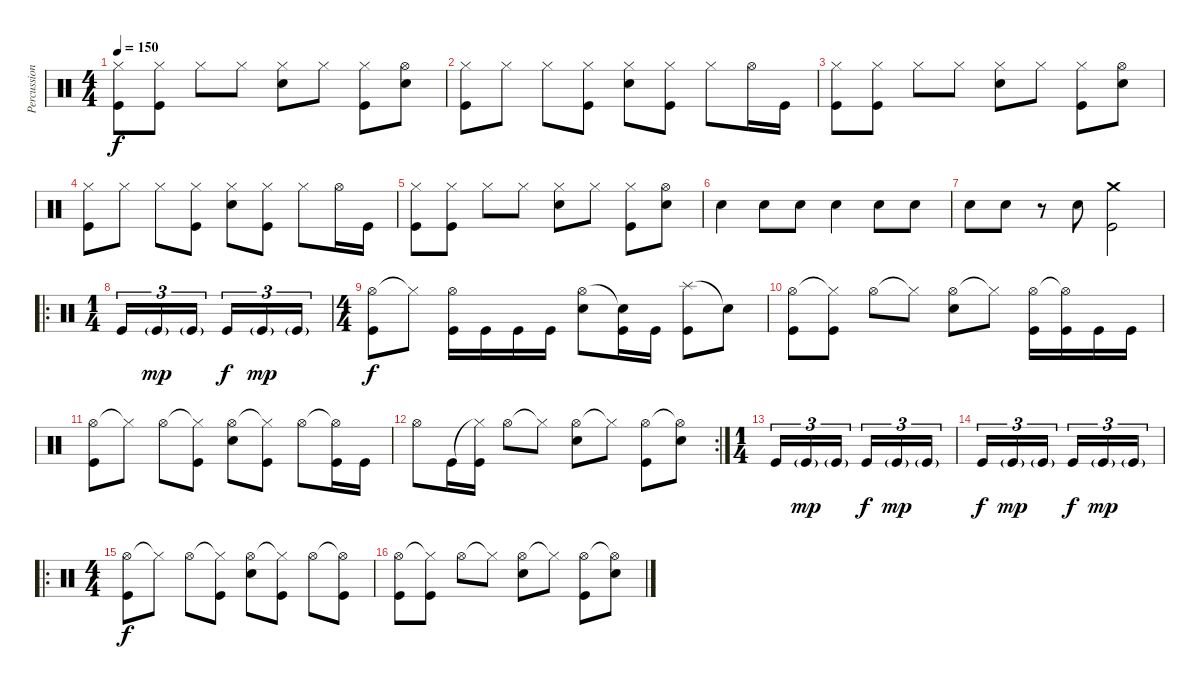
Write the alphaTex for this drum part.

\track ("Percussion" "Percussion") {instrument percussion}
\staff {score}
\articulation defaults
\ts (4 4)
\tempo 150
\clef neutral
\ks c
("Hi-Hat (closed)" "Kick (hit)").8{dy f} ("Hi-Hat (closed)" "Kick (hit)").8 "Hi-Hat (closed)".8 "Hi-Hat (closed)".8 ("Hi-Hat (closed)" "Snare (hit) 2").8 "Hi-Hat (closed)".8 ("Hi-Hat (closed)" "Kick (hit)").8 ("Hi-Hat (open)" "Snare (hit) 2").8 |
("Hi-Hat (closed)" "Kick (hit)").8 "Hi-Hat (closed)".8 "Hi-Hat (closed)".8 ("Hi-Hat (closed)" "Kick (hit)").8 ("Hi-Hat (closed)" "Snare (hit) 2").8 ("Hi-Hat (closed)" "Kick (hit)").8 "Hi-Hat (closed)".8 "Hi-Hat (open)".16 "Kick (hit)".16 |
("Hi-Hat (closed)" "Kick (hit)").8 ("Hi-Hat (closed)" "Kick (hit)").8 "Hi-Hat (closed)".8 "Hi-Hat (closed)".8 ("Hi-Hat (closed)" "Snare (hit) 2").8 "Hi-Hat (closed)".8 ("Hi-Hat (closed)" "Kick (hit)").8 ("Hi-Hat (open)" "Snare (hit) 2").8 |
("Hi-Hat (closed)" "Kick (hit)").8 "Hi-Hat (closed)".8 "Hi-Hat (closed)".8 ("Hi-Hat (closed)" "Kick (hit)").8 ("Hi-Hat (closed)" "Snare (hit) 2").8 ("Hi-Hat (closed)" "Kick (hit)").8 "Hi-Hat (closed)".8 "Hi-Hat (open)".16 "Kick (hit)".16 |
("Hi-Hat (closed)" "Kick (hit)").8 ("Hi-Hat (closed)" "Kick (hit)").8 "Hi-Hat (closed)".8 "Hi-Hat (closed)".8 ("Hi-Hat (closed)" "Snare (hit) 2").8 "Hi-Hat (closed)".8 ("Hi-Hat (closed)" "Kick (hit)").8 ("Hi-Hat (open)" "Snare (hit) 2").8 |
"Snare (hit) 2".4 "Snare (hit) 2".8 "Snare (hit) 2".8 "Snare (hit) 2".4 "Snare (hit) 2".8 "Snare (hit) 2".8 |
"Snare (hit) 2".8 "Snare (hit) 2".8 r.8 "Snare (hit) 2".8 ("Crash medium (hit)" "Kick (hit)").2 |
\ro
\ts (1 4)
"Kick (hit)".16{tu (3 2)} "Kick (hit)"{g}.16{tu (3 2) dy mp} "Kick (hit)"{g}.16{tu (3 2)} "Kick (hit)".16{tu (3 2) dy f} "Kick (hit)"{g}.16{tu (3 2) dy mp} "Kick (hit)"{g}.16{tu (3 2)} |
\ts (4 4)
("Hi-Hat (open)" "Kick (hit)").8{dy f} "Hi-Hat (closed)"{t}.8 ("Hi-Hat (open)" "Kick (hit)").16 "Kick (hit)".16 "Kick (hit)".16 "Kick (hit)".16 ("Hi-Hat (open)" "Snare (hit) 2").8 ("Snare (hit)"{t} "Kick (hit)").16 "Kick (hit)".16 ("Splash (hit)" "Kick (hit)").8 "Snare (hit)"{t}.8 |
("Hi-Hat (open)" "Kick (hit)").8 ("Hi-Hat (closed)"{t} "Kick (hit)").8 "Hi-Hat (open)".8 "Hi-Hat (closed)"{t}.8 ("Hi-Hat (open)" "Snare (hit) 2").8 "Hi-Hat (closed)"{t}.8 ("Hi-Hat (open)" "Kick (hit)").16 ("Hi-Hat (open)"{t} "Kick (hit)").16 "Kick (hit)".16 "Kick (hit)".16 |
("Hi-Hat (open)" "Kick (hit)").8 "Hi-Hat (closed)"{t}.8 "Hi-Hat (open)".8 ("Hi-Hat (closed)"{t} "Kick (hit)").8 ("Hi-Hat (open)" "Snare (hit) 2").8 ("Hi-Hat (closed)"{t} "Kick (hit)").8 "Hi-Hat (open)".8 ("Hi-Hat (open)"{t} "Kick (hit)").16 "Kick (hit)".16 |
\rc 2 "Hi-Hat (open)".8 "Kick (hit)".16
("Hi-Hat (closed)"{t} "Kick (hit)").16 "Hi-Hat (open)".8 "Hi-Hat (closed)"{t}.8 ("Hi-Hat (open)" "Snare (hit) 2").8 "Hi-Hat (closed)"{t}.8 ("Hi-Hat (open)" "Kick (hit)").8 ("Hi-Hat (open)"{t} "Snare (hit) 2").8 |
\ts (1 4)
"Kick (hit)".16{tu (3 2)} "Kick (hit)"{g}.16{tu (3 2) dy mp} "Kick (hit)"{g}.16{tu (3 2)} "Kick (hit)".16{tu (3 2) dy f} "Kick (hit)"{g}.16{tu (3 2) dy mp} "Kick (hit)"{g}.16{tu (3 2)} |
"Kick (hit)".16{tu (3 2) dy f} "Kick (hit)"{g}.16{tu (3 2) dy mp} "Kick (hit)"{g}.16{tu (3 2)} "Kick (hit)".16{tu (3 2) dy f} "Kick (hit)"{g}.16{tu (3 2) dy mp} "Kick (hit)"{g}.16{tu (3 2)} |
\ro
\ts (4 4)
("Hi-Hat (open)" "Kick (hit)").8{dy f} "Hi-Hat (closed)"{t}.8 "Hi-Hat (open)".8 ("Hi-Hat (closed)"{t} "Kick (hit)").8 ("Hi-Hat (open)" "Snare (hit) 2").8 ("Hi-Hat (closed)"{t} "Kick (hit)").8 "Hi-Hat (open)".8 ("Hi-Hat (open)"{t} "Kick (hit)").8 |
("Hi-Hat (open)" "Kick (hit)").8 ("Hi-Hat (closed)"{t} "Kick (hit)").8 "Hi-Hat (open)".8 "Hi-Hat (closed)"{t}.8 ("Hi-Hat (open)" "Snare (hit) 2").8 "Hi-Hat (closed)"{t}.8 ("Hi-Hat (open)" "Kick (hit)").8 ("Hi-Hat (open)"{t} "Snare (hit) 2").8
